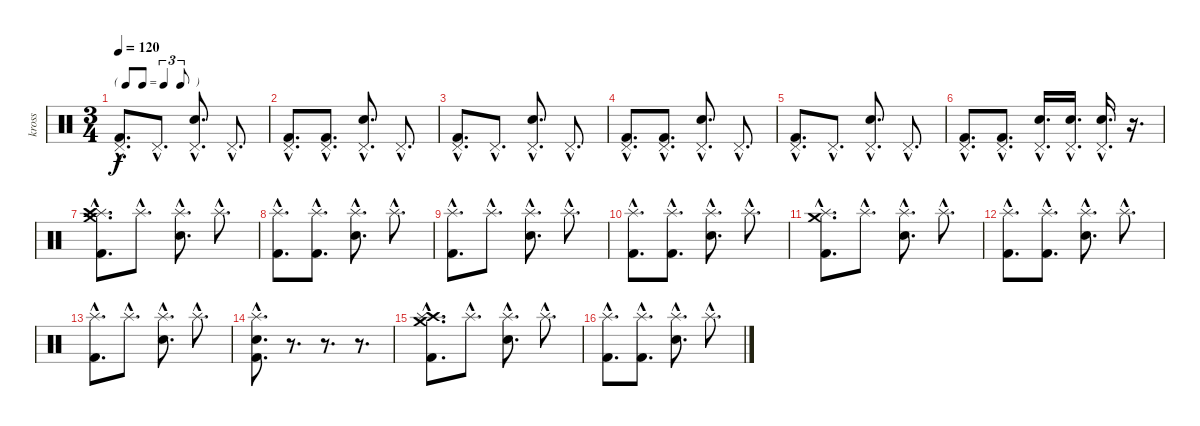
\track ("kross" "kross") {instrument percussion}
\staff {score}
\articulation defaults
\ts (3 4)
\tf triplet8th
\tempo 120
\clef neutral
\ks c
("Pedal Hi-Hat (hit)"{hac} "Kick (hit) 2"{hac}).8{d dy f} "Pedal Hi-Hat (hit)"{hac}.8{d} ("Electric Snare (hit)"{hac} "Pedal Hi-Hat (hit)"{hac}).8{d} "Pedal Hi-Hat (hit)"{hac}.8{d} |
("Pedal Hi-Hat (hit)"{hac} "Kick (hit) 2"{hac}).8{d} ("Pedal Hi-Hat (hit)"{hac} "Kick (hit) 2"{hac}).8{d} ("Electric Snare (hit)"{hac} "Pedal Hi-Hat (hit)"{hac}).8{d} "Pedal Hi-Hat (hit)"{hac}.8{d} |
("Pedal Hi-Hat (hit)"{hac} "Kick (hit) 2"{hac}).8{d} "Pedal Hi-Hat (hit)"{hac}.8{d} ("Electric Snare (hit)"{hac} "Pedal Hi-Hat (hit)"{hac}).8{d} "Pedal Hi-Hat (hit)"{hac}.8{d} |
("Pedal Hi-Hat (hit)"{hac} "Kick (hit) 2"{hac}).8{d} ("Pedal Hi-Hat (hit)"{hac} "Kick (hit) 2"{hac}).8{d} ("Electric Snare (hit)"{hac} "Pedal Hi-Hat (hit)"{hac}).8{d} "Pedal Hi-Hat (hit)"{hac}.8{d} |
("Pedal Hi-Hat (hit)"{hac} "Kick (hit) 2"{hac}).8{d} "Pedal Hi-Hat (hit)"{hac}.8{d} ("Electric Snare (hit)"{hac} "Pedal Hi-Hat (hit)"{hac}).8{d} "Pedal Hi-Hat (hit)"{hac}.8{d} |
("Pedal Hi-Hat (hit)"{hac} "Kick (hit) 2"{hac}).8{d} ("Pedal Hi-Hat (hit)"{hac} "Kick (hit) 2"{hac}).8{d} ("Electric Snare (hit)"{hac} "Pedal Hi-Hat (hit)"{hac}).16{d} ("Electric Snare (hit)"{hac} "Pedal Hi-Hat (hit)"{hac}).16{d} ("Electric Snare (hit)"{hac} "Pedal Hi-Hat (hit)"{hac}).16{d} r.16{d} |
("Crash medium (hit)"{hac} "Splash (hit)"{hac} "Crash high (hit)"{hac} "Kick (hit) 2"{hac}).8{d} "Splash (hit)"{hac}.8{d} ("Electric Snare (hit)"{hac} "Splash (hit)"{hac}).8{d} "Splash (hit)"{hac}.8{d} |
("Splash (hit)"{hac} "Kick (hit) 2"{hac}).8{d} ("Splash (hit)"{hac} "Kick (hit) 2"{hac}).8{d} ("Electric Snare (hit)"{hac} "Splash (hit)"{hac}).8{d} "Splash (hit)"{hac}.8{d} |
("Splash (hit)"{hac} "Kick (hit) 2"{hac}).8{d} "Splash (hit)"{hac}.8{d} ("Electric Snare (hit)"{hac} "Splash (hit)"{hac}).8{d} "Splash (hit)"{hac}.8{d} |
("Splash (hit)"{hac} "Kick (hit) 2"{hac}).8{d} ("Splash (hit)"{hac} "Kick (hit) 2"{hac}).8{d} ("Electric Snare (hit)"{hac} "Splash (hit)"{hac}).8{d} "Splash (hit)"{hac}.8{d} |
("Splash (hit)"{hac} "Crash medium (hit)"{hac} "Kick (hit) 2"{hac}).8{d} "Splash (hit)"{hac}.8{d} ("Electric Snare (hit)"{hac} "Splash (hit)"{hac}).8{d} "Splash (hit)"{hac}.8{d} |
("Splash (hit)"{hac} "Kick (hit) 2"{hac}).8{d} ("Splash (hit)"{hac} "Kick (hit) 2"{hac}).8{d} ("Electric Snare (hit)"{hac} "Splash (hit)"{hac}).8{d} "Splash (hit)"{hac}.8{d} |
("Splash (hit)"{hac} "Kick (hit) 2"{hac}).8{d} "Splash (hit)"{hac}.8{d} ("Electric Snare (hit)"{hac} "Splash (hit)"{hac}).8{d} "Splash (hit)"{hac}.8{d} |
("Electric Snare (hit)"{hac} "Splash (hit)"{hac} "Kick (hit) 2"{hac}).8{d} r.8{d} r.8{d} r.8{d} |
("Crash high (hit)"{hac} "Splash (hit)"{hac} "Crash medium (hit)"{hac} "Kick (hit) 2"{hac}).8{d} "Splash (hit)"{hac}.8{d} ("Electric Snare (hit)"{hac} "Splash (hit)"{hac}).8{d} "Splash (hit)"{hac}.8{d} |
("Splash (hit)"{hac} "Kick (hit) 2"{hac}).8{d} ("Splash (hit)"{hac} "Kick (hit) 2"{hac}).8{d} ("Electric Snare (hit)"{hac} "Splash (hit)"{hac}).8{d} "Splash (hit)"{hac}.8{d}
